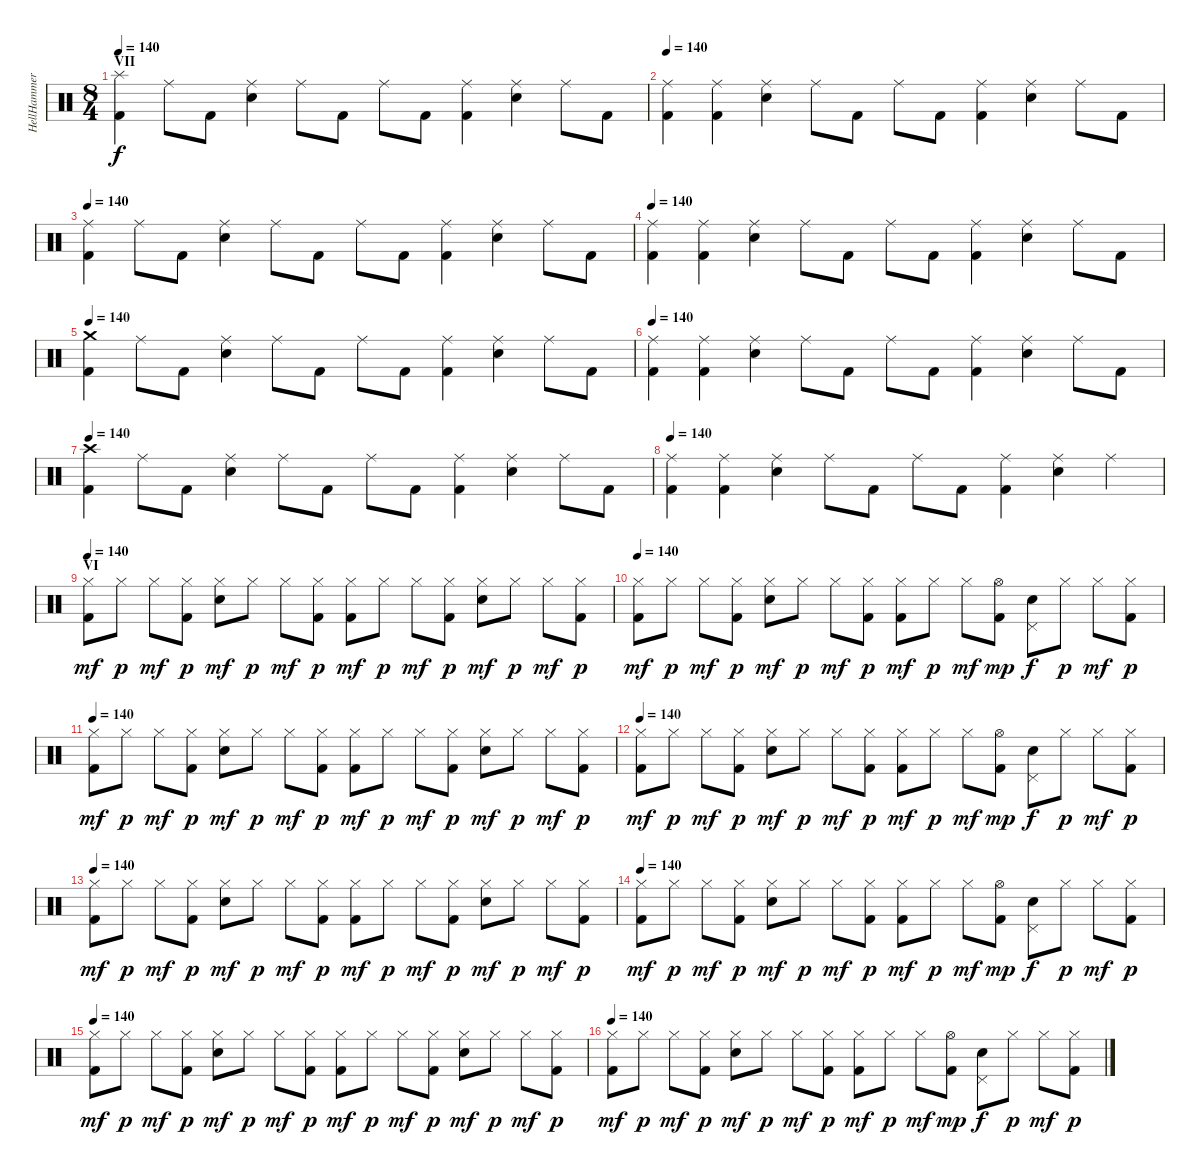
\track ("HellHammer" "HellHammer") {instrument percussion}
\staff {score}
\articulation defaults
\ts (8 4)
\section ("" "VII")
\tempo 140
\clef neutral
\ks c
("Kick (hit) 2" "Splash (hit)").4{dy f} "Ride (middle)".8 "Kick (hit) 2".8 ("Electric Snare (hit)" "Ride (middle)").4 "Ride (middle)".8 "Kick (hit) 2".8 "Ride (middle)".8 "Kick (hit) 2".8 ("Kick (hit) 2" "Ride (middle)").4 ("Electric Snare (hit)" "Ride (middle)").4 "Ride (middle)".8 "Kick (hit) 2".8 |
\tempo 140
("Kick (hit) 2" "Ride (middle)").4 ("Kick (hit) 2" "Ride (middle)").4 ("Electric Snare (hit)" "Ride (middle)").4 "Ride (middle)".8 "Kick (hit) 2".8 "Ride (middle)".8 "Kick (hit) 2".8 ("Kick (hit) 2" "Ride (middle)").4 ("Electric Snare (hit)" "Ride (middle)").4 "Ride (middle)".8 "Kick (hit) 2".8 |
\tempo 140
("Kick (hit) 2" "Ride (middle)").4 "Ride (middle)".8 "Kick (hit) 2".8 ("Electric Snare (hit)" "Ride (middle)").4 "Ride (middle)".8 "Kick (hit) 2".8 "Ride (middle)".8 "Kick (hit) 2".8 ("Kick (hit) 2" "Ride (middle)").4 ("Electric Snare (hit)" "Ride (middle)").4 "Ride (middle)".8 "Kick (hit) 2".8 |
\tempo 140
("Kick (hit) 2" "Ride (middle)").4 ("Kick (hit) 2" "Ride (middle)").4 ("Electric Snare (hit)" "Ride (middle)").4 "Ride (middle)".8 "Kick (hit) 2".8 "Ride (middle)".8 "Kick (hit) 2".8 ("Kick (hit) 2" "Ride (middle)").4 ("Electric Snare (hit)" "Ride (middle)").4 "Ride (middle)".8 "Kick (hit) 2".8 |
\tempo 140
("Kick (hit) 2" "Crash medium (hit)").4 "Ride (middle)".8 "Kick (hit) 2".8 ("Electric Snare (hit)" "Ride (middle)").4 "Ride (middle)".8 "Kick (hit) 2".8 "Ride (middle)".8 "Kick (hit) 2".8 ("Kick (hit) 2" "Ride (middle)").4 ("Electric Snare (hit)" "Ride (middle)").4 "Ride (middle)".8 "Kick (hit) 2".8 |
\tempo 140
("Kick (hit) 2" "Ride (middle)").4 ("Kick (hit) 2" "Ride (middle)").4 ("Electric Snare (hit)" "Ride (middle)").4 "Ride (middle)".8 "Kick (hit) 2".8 "Ride (middle)".8 "Kick (hit) 2".8 ("Kick (hit) 2" "Ride (middle)").4 ("Electric Snare (hit)" "Ride (middle)").4 "Ride (middle)".8 "Kick (hit) 2".8 |
\tempo 140
("Kick (hit) 2" "Crash high (hit)").4 "Ride (middle)".8 "Kick (hit) 2".8 ("Electric Snare (hit)" "Ride (middle)").4 "Ride (middle)".8 "Kick (hit) 2".8 "Ride (middle)".8 "Kick (hit) 2".8 ("Kick (hit) 2" "Ride (middle)").4 ("Electric Snare (hit)" "Ride (middle)").4 "Ride (middle)".8 "Kick (hit) 2".8 |
\tempo 140
("Kick (hit) 2" "Ride (middle)").4 ("Kick (hit) 2" "Ride (middle)").4 ("Electric Snare (hit)" "Ride (middle)").4 "Ride (middle)".8 "Kick (hit) 2".8 "Ride (middle)".8 "Kick (hit) 2".8 ("Kick (hit) 2" "Ride (middle)").4 ("Electric Snare (hit)" "Ride (middle)").4 "Ride (middle)".4 |
\section ("" "VI")
\tempo 140
("Kick (hit) 2" "Hi-Hat (closed)").8{dy mf} "Hi-Hat (closed)".8{dy p} "Hi-Hat (closed)".8{dy mf} ("Kick (hit) 2" "Hi-Hat (closed)").8{dy p} ("Electric Snare (hit)" "Hi-Hat (closed)").8{dy mf} "Hi-Hat (closed)".8{dy p} "Hi-Hat (closed)".8{dy mf} ("Kick (hit) 2" "Hi-Hat (closed)").8{dy p} ("Kick (hit) 2" "Hi-Hat (closed)").8{dy mf} "Hi-Hat (closed)".8{dy p} "Hi-Hat (closed)".8{dy mf} ("Kick (hit) 2" "Hi-Hat (closed)").8{dy p} ("Electric Snare (hit)" "Hi-Hat (closed)").8{dy mf} "Hi-Hat (closed)".8{dy p} "Hi-Hat (closed)".8{dy mf} ("Kick (hit) 2" "Hi-Hat (closed)").8{dy p} |
\tempo 140
("Kick (hit) 2" "Hi-Hat (closed)").8{dy mf} "Hi-Hat (closed)".8{dy p} "Hi-Hat (closed)".8{dy mf} ("Kick (hit) 2" "Hi-Hat (closed)").8{dy p} ("Electric Snare (hit)" "Hi-Hat (closed)").8{dy mf} "Hi-Hat (closed)".8{dy p} "Hi-Hat (closed)".8{dy mf} ("Kick (hit) 2" "Hi-Hat (closed)").8{dy p} ("Kick (hit) 2" "Hi-Hat (closed)").8{dy mf} "Hi-Hat (closed)".8{dy p} "Hi-Hat (closed)".8{dy mf} ("Kick (hit) 2" "Hi-Hat (open)").8{dy mp} ("Electric Snare (hit)" "Pedal Hi-Hat (hit)").8{dy f} "Hi-Hat (closed)".8{dy p} "Hi-Hat (closed)".8{dy mf} ("Kick (hit) 2" "Hi-Hat (closed)").8{dy p} |
\tempo 140
("Kick (hit) 2" "Hi-Hat (closed)").8{dy mf} "Hi-Hat (closed)".8{dy p} "Hi-Hat (closed)".8{dy mf} ("Kick (hit) 2" "Hi-Hat (closed)").8{dy p} ("Electric Snare (hit)" "Hi-Hat (closed)").8{dy mf} "Hi-Hat (closed)".8{dy p} "Hi-Hat (closed)".8{dy mf} ("Kick (hit) 2" "Hi-Hat (closed)").8{dy p} ("Kick (hit) 2" "Hi-Hat (closed)").8{dy mf} "Hi-Hat (closed)".8{dy p} "Hi-Hat (closed)".8{dy mf} ("Kick (hit) 2" "Hi-Hat (closed)").8{dy p} ("Electric Snare (hit)" "Hi-Hat (closed)").8{dy mf} "Hi-Hat (closed)".8{dy p} "Hi-Hat (closed)".8{dy mf} ("Kick (hit) 2" "Hi-Hat (closed)").8{dy p} |
\tempo 140
("Kick (hit) 2" "Hi-Hat (closed)").8{dy mf} "Hi-Hat (closed)".8{dy p} "Hi-Hat (closed)".8{dy mf} ("Kick (hit) 2" "Hi-Hat (closed)").8{dy p} ("Electric Snare (hit)" "Hi-Hat (closed)").8{dy mf} "Hi-Hat (closed)".8{dy p} "Hi-Hat (closed)".8{dy mf} ("Kick (hit) 2" "Hi-Hat (closed)").8{dy p} ("Kick (hit) 2" "Hi-Hat (closed)").8{dy mf} "Hi-Hat (closed)".8{dy p} "Hi-Hat (closed)".8{dy mf} ("Kick (hit) 2" "Hi-Hat (open)").8{dy mp} ("Electric Snare (hit)" "Pedal Hi-Hat (hit)").8{dy f} "Hi-Hat (closed)".8{dy p} "Hi-Hat (closed)".8{dy mf} ("Kick (hit) 2" "Hi-Hat (closed)").8{dy p} |
\tempo 140
("Kick (hit) 2" "Hi-Hat (closed)").8{dy mf} "Hi-Hat (closed)".8{dy p} "Hi-Hat (closed)".8{dy mf} ("Kick (hit) 2" "Hi-Hat (closed)").8{dy p} ("Electric Snare (hit)" "Hi-Hat (closed)").8{dy mf} "Hi-Hat (closed)".8{dy p} "Hi-Hat (closed)".8{dy mf} ("Kick (hit) 2" "Hi-Hat (closed)").8{dy p} ("Kick (hit) 2" "Hi-Hat (closed)").8{dy mf} "Hi-Hat (closed)".8{dy p} "Hi-Hat (closed)".8{dy mf} ("Kick (hit) 2" "Hi-Hat (closed)").8{dy p} ("Electric Snare (hit)" "Hi-Hat (closed)").8{dy mf} "Hi-Hat (closed)".8{dy p} "Hi-Hat (closed)".8{dy mf} ("Kick (hit) 2" "Hi-Hat (closed)").8{dy p} |
\tempo 140
("Kick (hit) 2" "Hi-Hat (closed)").8{dy mf} "Hi-Hat (closed)".8{dy p} "Hi-Hat (closed)".8{dy mf} ("Kick (hit) 2" "Hi-Hat (closed)").8{dy p} ("Electric Snare (hit)" "Hi-Hat (closed)").8{dy mf} "Hi-Hat (closed)".8{dy p} "Hi-Hat (closed)".8{dy mf} ("Kick (hit) 2" "Hi-Hat (closed)").8{dy p} ("Kick (hit) 2" "Hi-Hat (closed)").8{dy mf} "Hi-Hat (closed)".8{dy p} "Hi-Hat (closed)".8{dy mf} ("Kick (hit) 2" "Hi-Hat (open)").8{dy mp} ("Electric Snare (hit)" "Pedal Hi-Hat (hit)").8{dy f} "Hi-Hat (closed)".8{dy p} "Hi-Hat (closed)".8{dy mf} ("Kick (hit) 2" "Hi-Hat (closed)").8{dy p} |
\tempo 140
("Kick (hit) 2" "Hi-Hat (closed)").8{dy mf} "Hi-Hat (closed)".8{dy p} "Hi-Hat (closed)".8{dy mf} ("Kick (hit) 2" "Hi-Hat (closed)").8{dy p} ("Electric Snare (hit)" "Hi-Hat (closed)").8{dy mf} "Hi-Hat (closed)".8{dy p} "Hi-Hat (closed)".8{dy mf} ("Kick (hit) 2" "Hi-Hat (closed)").8{dy p} ("Kick (hit) 2" "Hi-Hat (closed)").8{dy mf} "Hi-Hat (closed)".8{dy p} "Hi-Hat (closed)".8{dy mf} ("Kick (hit) 2" "Hi-Hat (closed)").8{dy p} ("Electric Snare (hit)" "Hi-Hat (closed)").8{dy mf} "Hi-Hat (closed)".8{dy p} "Hi-Hat (closed)".8{dy mf} ("Kick (hit) 2" "Hi-Hat (closed)").8{dy p} |
\tempo 140
("Kick (hit) 2" "Hi-Hat (closed)").8{dy mf} "Hi-Hat (closed)".8{dy p} "Hi-Hat (closed)".8{dy mf} ("Kick (hit) 2" "Hi-Hat (closed)").8{dy p} ("Electric Snare (hit)" "Hi-Hat (closed)").8{dy mf} "Hi-Hat (closed)".8{dy p} "Hi-Hat (closed)".8{dy mf} ("Kick (hit) 2" "Hi-Hat (closed)").8{dy p} ("Kick (hit) 2" "Hi-Hat (closed)").8{dy mf} "Hi-Hat (closed)".8{dy p} "Hi-Hat (closed)".8{dy mf} ("Kick (hit) 2" "Hi-Hat (open)").8{dy mp} ("Electric Snare (hit)" "Pedal Hi-Hat (hit)").8{dy f} "Hi-Hat (closed)".8{dy p} "Hi-Hat (closed)".8{dy mf} ("Kick (hit) 2" "Hi-Hat (closed)").8{dy p}
